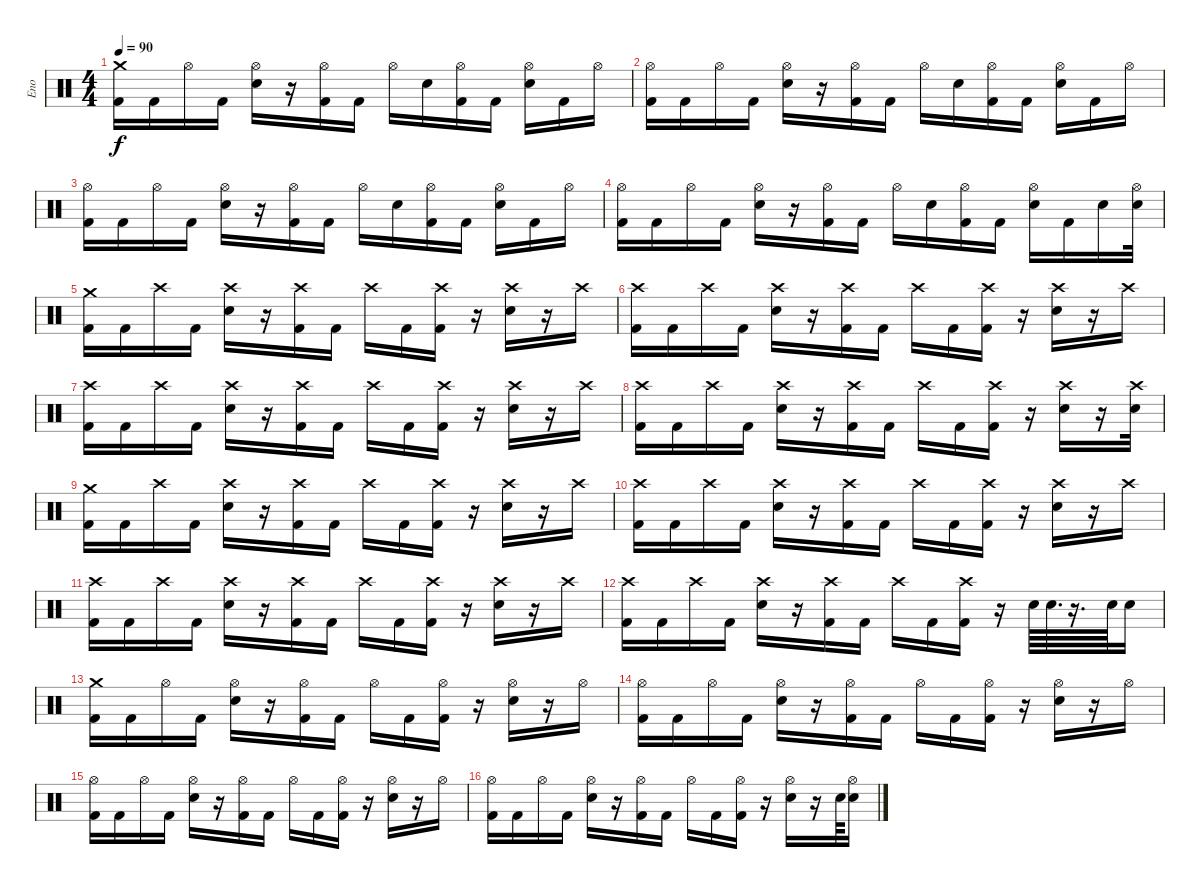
\track ("Eno" "Eno") {instrument percussion}
\staff {score}
\articulation defaults
\ts (4 4)
\tempo 90
\clef neutral
\ks c
("Crash medium (hit)" "Kick (hit) 2").16{dy f} "Kick (hit) 2".16 "Hi-Hat (open)".16 "Kick (hit) 2".16 ("Hi-Hat (open)" "Snare (hit) 2").16 r.16 ("Hi-Hat (open)" "Kick (hit) 2").16 "Kick (hit) 2".16 "Hi-Hat (open)".16 "Snare (hit) 2".16 ("Hi-Hat (open)" "Kick (hit) 2").16 "Kick (hit) 2".16 ("Hi-Hat (open)" "Snare (hit) 2").16 "Kick (hit) 2".16 "Hi-Hat (open)".16 |
("Hi-Hat (open)" "Kick (hit) 2").16 "Kick (hit) 2".16 "Hi-Hat (open)".16 "Kick (hit) 2".16 ("Hi-Hat (open)" "Snare (hit) 2").16 r.16 ("Hi-Hat (open)" "Kick (hit) 2").16 "Kick (hit) 2".16 "Hi-Hat (open)".16 "Snare (hit) 2".16 ("Hi-Hat (open)" "Kick (hit) 2").16 "Kick (hit) 2".16 ("Hi-Hat (open)" "Snare (hit) 2").16 "Kick (hit) 2".16 "Hi-Hat (open)".16 |
("Hi-Hat (open)" "Kick (hit) 2").16 "Kick (hit) 2".16 "Hi-Hat (open)".16 "Kick (hit) 2".16 ("Hi-Hat (open)" "Snare (hit) 2").16 r.16 ("Hi-Hat (open)" "Kick (hit) 2").16 "Kick (hit) 2".16 "Hi-Hat (open)".16 "Snare (hit) 2".16 ("Hi-Hat (open)" "Kick (hit) 2").16 "Kick (hit) 2".16 ("Hi-Hat (open)" "Snare (hit) 2").16 "Kick (hit) 2".16 "Hi-Hat (open)".16 |
("Hi-Hat (open)" "Kick (hit) 2").16 "Kick (hit) 2".16 "Hi-Hat (open)".16 "Kick (hit) 2".16 ("Hi-Hat (open)" "Snare (hit) 2").16 r.16 ("Hi-Hat (open)" "Kick (hit) 2").16 "Kick (hit) 2".16 "Hi-Hat (open)".16 "Snare (hit) 2".16 ("Hi-Hat (open)" "Kick (hit) 2").16 "Kick (hit) 2".16 ("Hi-Hat (open)" "Snare (hit) 2").16 "Kick (hit) 2".16 "Snare (hit) 2".16 ("Hi-Hat (open)" "Snare (hit) 2").32 |
("Crash medium (hit)" "Kick (hit) 2").16 "Kick (hit) 2".16 "Crash high (hit)".16 "Kick (hit) 2".16 ("Crash high (hit)" "Snare (hit) 2").16 r.16 ("Crash high (hit)" "Kick (hit) 2").16 "Kick (hit) 2".16 "Crash high (hit)".16 "Kick (hit) 2".16 ("Crash high (hit)" "Kick (hit) 2").16 r.16 ("Crash high (hit)" "Snare (hit) 2").16 r.16 "Crash high (hit)".16 |
("Crash high (hit)" "Kick (hit) 2").16 "Kick (hit) 2".16 "Crash high (hit)".16 "Kick (hit) 2".16 ("Crash high (hit)" "Snare (hit) 2").16 r.16 ("Crash high (hit)" "Kick (hit) 2").16 "Kick (hit) 2".16 "Crash high (hit)".16 "Kick (hit) 2".16 ("Crash high (hit)" "Kick (hit) 2").16 r.16 ("Crash high (hit)" "Snare (hit) 2").16 r.16 "Crash high (hit)".16 |
("Crash high (hit)" "Kick (hit) 2").16 "Kick (hit) 2".16 "Crash high (hit)".16 "Kick (hit) 2".16 ("Crash high (hit)" "Snare (hit) 2").16 r.16 ("Crash high (hit)" "Kick (hit) 2").16 "Kick (hit) 2".16 "Crash high (hit)".16 "Kick (hit) 2".16 ("Crash high (hit)" "Kick (hit) 2").16 r.16 ("Crash high (hit)" "Snare (hit) 2").16 r.16 "Crash high (hit)".16 |
("Crash high (hit)" "Kick (hit) 2").16 "Kick (hit) 2".16 "Crash high (hit)".16 "Kick (hit) 2".16 ("Crash high (hit)" "Snare (hit) 2").16 r.16 ("Crash high (hit)" "Kick (hit) 2").16 "Kick (hit) 2".16 "Crash high (hit)".16 "Kick (hit) 2".16 ("Crash high (hit)" "Kick (hit) 2").16 r.16 ("Crash high (hit)" "Snare (hit) 2").16 r.16 ("Crash high (hit)" "Snare (hit) 2").32 |
("Crash medium (hit)" "Kick (hit) 2").16 "Kick (hit) 2".16 "Crash high (hit)".16 "Kick (hit) 2".16 ("Crash high (hit)" "Snare (hit) 2").16 r.16 ("Crash high (hit)" "Kick (hit) 2").16 "Kick (hit) 2".16 "Crash high (hit)".16 "Kick (hit) 2".16 ("Crash high (hit)" "Kick (hit) 2").16 r.16 ("Crash high (hit)" "Snare (hit) 2").16 r.16 "Crash high (hit)".16 |
("Crash high (hit)" "Kick (hit) 2").16 "Kick (hit) 2".16 "Crash high (hit)".16 "Kick (hit) 2".16 ("Crash high (hit)" "Snare (hit) 2").16 r.16 ("Crash high (hit)" "Kick (hit) 2").16 "Kick (hit) 2".16 "Crash high (hit)".16 "Kick (hit) 2".16 ("Crash high (hit)" "Kick (hit) 2").16 r.16 ("Crash high (hit)" "Snare (hit) 2").16 r.16 "Crash high (hit)".16 |
("Crash high (hit)" "Kick (hit) 2").16 "Kick (hit) 2".16 "Crash high (hit)".16 "Kick (hit) 2".16 ("Crash high (hit)" "Snare (hit) 2").16 r.16 ("Crash high (hit)" "Kick (hit) 2").16 "Kick (hit) 2".16 "Crash high (hit)".16 "Kick (hit) 2".16 ("Crash high (hit)" "Kick (hit) 2").16 r.16 ("Crash high (hit)" "Snare (hit) 2").16 r.16 "Crash high (hit)".16 |
("Crash high (hit)" "Kick (hit) 2").16 "Kick (hit) 2".16 "Crash high (hit)".16 "Kick (hit) 2".16 ("Crash high (hit)" "Snare (hit) 2").16 r.16 ("Crash high (hit)" "Kick (hit) 2").16 "Kick (hit) 2".16 "Crash high (hit)".16 "Kick (hit) 2".16 ("Crash high (hit)" "Kick (hit) 2").16 r.16 "Snare (hit) 2".64 "Snare (hit) 2".64{d} r.16{d} "Snare (hit) 2".64 "Snare (hit) 2".16 |
("Crash medium (hit)" "Kick (hit) 2").16 "Kick (hit) 2".16 "Hi-Hat (open)".16 "Kick (hit) 2".16 ("Hi-Hat (open)" "Snare (hit) 2").16 r.16 ("Hi-Hat (open)" "Kick (hit) 2").16 "Kick (hit) 2".16 "Hi-Hat (open)".16 "Kick (hit) 2".16 ("Hi-Hat (open)" "Kick (hit) 2").16 r.16 ("Hi-Hat (open)" "Snare (hit) 2").16 r.16 "Hi-Hat (open)".16 |
("Hi-Hat (open)" "Kick (hit) 2").16 "Kick (hit) 2".16 "Hi-Hat (open)".16 "Kick (hit) 2".16 ("Hi-Hat (open)" "Snare (hit) 2").16 r.16 ("Hi-Hat (open)" "Kick (hit) 2").16 "Kick (hit) 2".16 "Hi-Hat (open)".16 "Kick (hit) 2".16 ("Hi-Hat (open)" "Kick (hit) 2").16 r.16 ("Hi-Hat (open)" "Snare (hit) 2").16 r.16 "Hi-Hat (open)".16 |
("Hi-Hat (open)" "Kick (hit) 2").16 "Kick (hit) 2".16 "Hi-Hat (open)".16 "Kick (hit) 2".16 ("Hi-Hat (open)" "Snare (hit) 2").16 r.16 ("Hi-Hat (open)" "Kick (hit) 2").16 "Kick (hit) 2".16 "Hi-Hat (open)".16 "Kick (hit) 2".16 ("Hi-Hat (open)" "Kick (hit) 2").16 r.16 ("Hi-Hat (open)" "Snare (hit) 2").16 r.16 "Hi-Hat (open)".16 |
("Hi-Hat (open)" "Kick (hit) 2").16 "Kick (hit) 2".16 "Hi-Hat (open)".16 "Kick (hit) 2".16 ("Hi-Hat (open)" "Snare (hit) 2").16 r.16 ("Hi-Hat (open)" "Kick (hit) 2").16 "Kick (hit) 2".16 "Hi-Hat (open)".16 "Kick (hit) 2".16 ("Hi-Hat (open)" "Kick (hit) 2").16 r.16 ("Hi-Hat (open)" "Snare (hit) 2").16 r.16 "Snare (hit) 2".64 ("Hi-Hat (open)" "Snare (hit) 2").16
